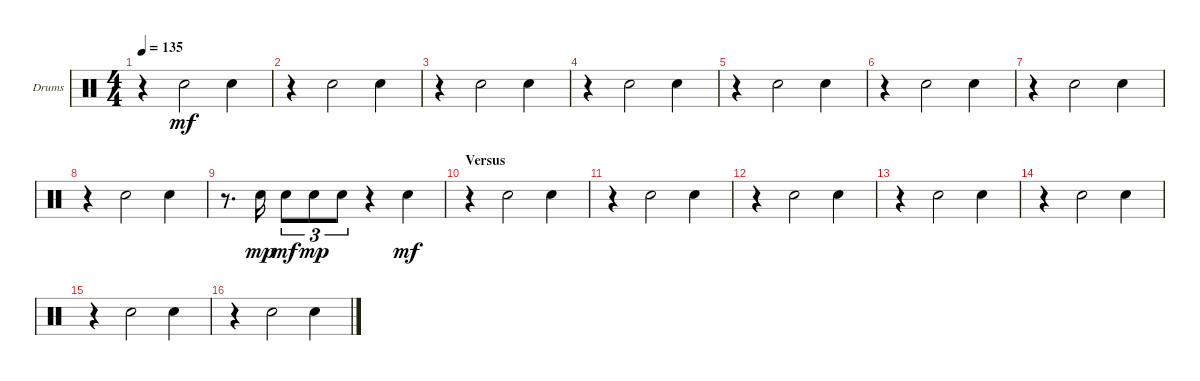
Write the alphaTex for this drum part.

\bracketExtendMode groupsimilarinstruments
\firstSystemTrackNameOrientation horizontal
\otherSystemsTrackNameOrientation horizontal
\track ("Snare" "Drums") {instrument percussion}
\staff {score}
\articulation defaults
\ts (4 4)
\tempo 135
\clef neutral
\ks c
r.4{dy mf} "Snare (hit) 2".2 "Snare (hit) 2".4 |
r.4 "Snare (hit) 2".2 "Snare (hit) 2".4 |
r.4 "Snare (hit) 2".2 "Snare (hit) 2".4 |
r.4 "Snare (hit) 2".2 "Snare (hit) 2".4 |
r.4 "Snare (hit) 2".2 "Snare (hit) 2".4 |
r.4 "Snare (hit) 2".2 "Snare (hit) 2".4 |
r.4 "Snare (hit) 2".2 "Snare (hit) 2".4 |
r.4 "Snare (hit) 2".2 "Snare (hit) 2".4 |
r.8{d} "Snare (hit) 2".16{dy mp} "Snare (hit) 2".8{tu (3 2) dy mf} "Snare (hit) 2".8{tu (3 2) dy mp} "Snare (hit) 2".8{tu (3 2)} r.4 "Snare (hit) 2".4{dy mf} |
\section ("" "Versus")
r.4 "Snare (hit) 2".2 "Snare (hit) 2".4 |
r.4 "Snare (hit) 2".2 "Snare (hit) 2".4 |
r.4 "Snare (hit) 2".2 "Snare (hit) 2".4 |
r.4 "Snare (hit) 2".2 "Snare (hit) 2".4 |
r.4 "Snare (hit) 2".2 "Snare (hit) 2".4 |
r.4 "Snare (hit) 2".2 "Snare (hit) 2".4 |
r.4 "Snare (hit) 2".2 "Snare (hit) 2".4
